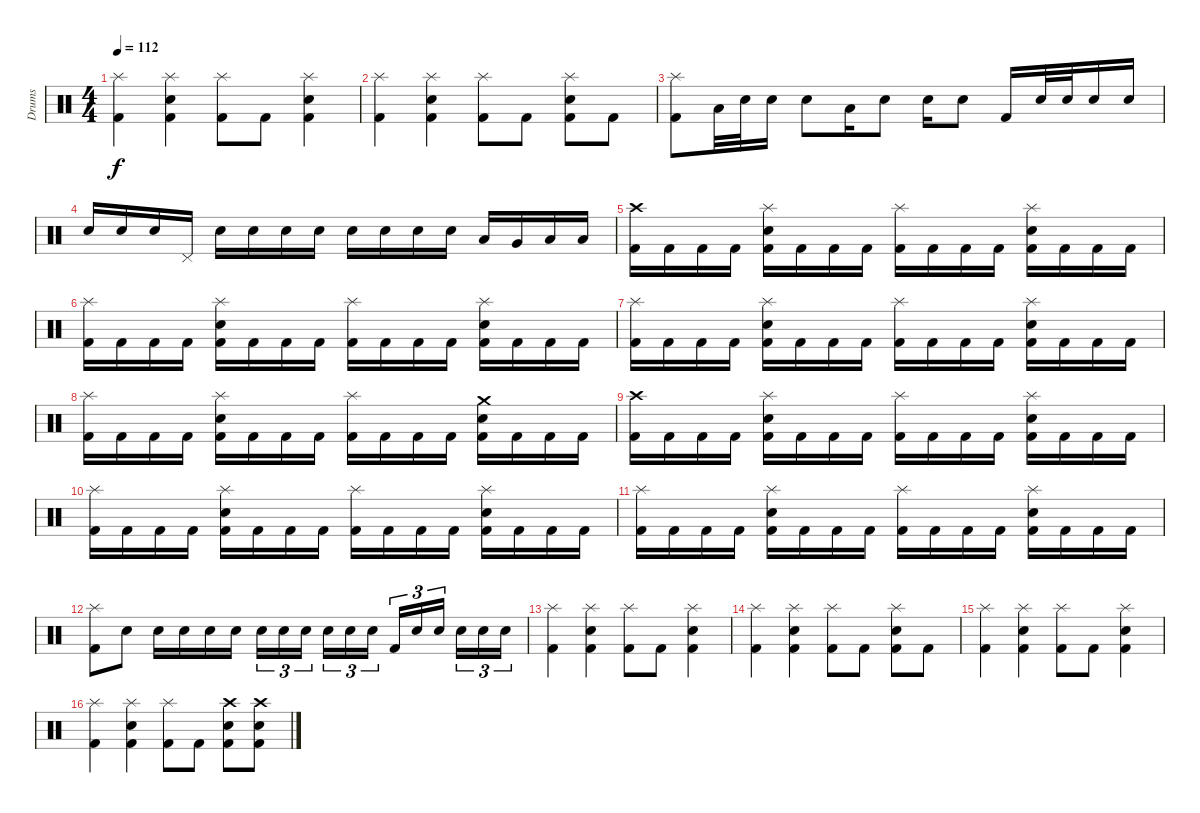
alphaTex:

\track ("Drums" "Drums") {instrument percussion}
\staff {score}
\articulation defaults
\ts (4 4)
\tempo 112
\clef neutral
\ks c
("Splash (hit)" "Kick (hit) 2").4{dy f} ("Splash (hit)" "Electric Snare (hit)" "Kick (hit) 2").4 ("Splash (hit)" "Kick (hit) 2").8 "Kick (hit) 2".8 ("Splash (hit)" "Electric Snare (hit)" "Kick (hit) 2").4 |
("Splash (hit)" "Kick (hit) 2").4 ("Splash (hit)" "Electric Snare (hit)" "Kick (hit) 2").4 ("Splash (hit)" "Kick (hit) 2").8 "Kick (hit) 2".8 ("Splash (hit)" "Electric Snare (hit)" "Kick (hit) 2").8 "Kick (hit) 2".8 |
("Splash (hit)" "Kick (hit) 2").8 "Low Floor Tom (hit)".32 "Electric Snare (hit)".32 "Electric Snare (hit)".16 "Electric Snare (hit)".8 "Low Floor Tom (hit)".16 "Electric Snare (hit)".8 "Electric Snare (hit)".16 "Electric Snare (hit)".8 "Kick (hit) 2".16 "Electric Snare (hit)".32 "Electric Snare (hit)".32 "Electric Snare (hit)".16 "Electric Snare (hit)".16 |
"Electric Snare (hit)".16 "Electric Snare (hit)".16 "Electric Snare (hit)".16 "Pedal Hi-Hat (hit)".16 "Electric Snare (hit)".16 "Electric Snare (hit)".16 "Electric Snare (hit)".16 "Electric Snare (hit)".16 "Electric Snare (hit)".16 "Electric Snare (hit)".16 "Electric Snare (hit)".16 "Electric Snare (hit)".16 "Low Tom (hit)".16 "Very Low Tom (hit)".16 "Low Floor Tom (hit)".16 "Low Floor Tom (hit)".16 |
("Crash high (hit)" "Kick (hit) 2").16 "Kick (hit) 2".16 "Kick (hit) 2".16 "Kick (hit) 2".16 ("Splash (hit)" "Electric Snare (hit)" "Kick (hit) 2").16 "Kick (hit) 2".16 "Kick (hit) 2".16 "Kick (hit) 2".16 ("Splash (hit)" "Kick (hit) 2").16 "Kick (hit) 2".16 "Kick (hit) 2".16 "Kick (hit) 2".16 ("Splash (hit)" "Electric Snare (hit)" "Kick (hit) 2").16 "Kick (hit) 2".16 "Kick (hit) 2".16 "Kick (hit) 2".16 |
("Splash (hit)" "Kick (hit) 2").16 "Kick (hit) 2".16 "Kick (hit) 2".16 "Kick (hit) 2".16 ("Splash (hit)" "Electric Snare (hit)" "Kick (hit) 2").16 "Kick (hit) 2".16 "Kick (hit) 2".16 "Kick (hit) 2".16 ("Splash (hit)" "Kick (hit) 2").16 "Kick (hit) 2".16 "Kick (hit) 2".16 "Kick (hit) 2".16 ("Splash (hit)" "Electric Snare (hit)" "Kick (hit) 2").16 "Kick (hit) 2".16 "Kick (hit) 2".16 "Kick (hit) 2".16 |
("Splash (hit)" "Kick (hit) 2").16 "Kick (hit) 2".16 "Kick (hit) 2".16 "Kick (hit) 2".16 ("Splash (hit)" "Electric Snare (hit)" "Kick (hit) 2").16 "Kick (hit) 2".16 "Kick (hit) 2".16 "Kick (hit) 2".16 ("Splash (hit)" "Kick (hit) 2").16 "Kick (hit) 2".16 "Kick (hit) 2".16 "Kick (hit) 2".16 ("Splash (hit)" "Electric Snare (hit)" "Kick (hit) 2").16 "Kick (hit) 2".16 "Kick (hit) 2".16 "Kick (hit) 2".16 |
("Splash (hit)" "Kick (hit) 2").16 "Kick (hit) 2".16 "Kick (hit) 2".16 "Kick (hit) 2".16 ("Splash (hit)" "Electric Snare (hit)" "Kick (hit) 2").16 "Kick (hit) 2".16 "Kick (hit) 2".16 "Kick (hit) 2".16 ("Splash (hit)" "Kick (hit) 2").16 "Kick (hit) 2".16 "Kick (hit) 2".16 "Kick (hit) 2".16 ("Crash medium (hit)" "Electric Snare (hit)" "Kick (hit) 2").16 "Kick (hit) 2".16 "Kick (hit) 2".16 "Kick (hit) 2".16 |
("Crash high (hit)" "Kick (hit) 2").16 "Kick (hit) 2".16 "Kick (hit) 2".16 "Kick (hit) 2".16 ("Splash (hit)" "Electric Snare (hit)" "Kick (hit) 2").16 "Kick (hit) 2".16 "Kick (hit) 2".16 "Kick (hit) 2".16 ("Splash (hit)" "Kick (hit) 2").16 "Kick (hit) 2".16 "Kick (hit) 2".16 "Kick (hit) 2".16 ("Splash (hit)" "Electric Snare (hit)" "Kick (hit) 2").16 "Kick (hit) 2".16 "Kick (hit) 2".16 "Kick (hit) 2".16 |
("Splash (hit)" "Kick (hit) 2").16 "Kick (hit) 2".16 "Kick (hit) 2".16 "Kick (hit) 2".16 ("Splash (hit)" "Electric Snare (hit)" "Kick (hit) 2").16 "Kick (hit) 2".16 "Kick (hit) 2".16 "Kick (hit) 2".16 ("Splash (hit)" "Kick (hit) 2").16 "Kick (hit) 2".16 "Kick (hit) 2".16 "Kick (hit) 2".16 ("Splash (hit)" "Electric Snare (hit)" "Kick (hit) 2").16 "Kick (hit) 2".16 "Kick (hit) 2".16 "Kick (hit) 2".16 |
("Splash (hit)" "Kick (hit) 2").16 "Kick (hit) 2".16 "Kick (hit) 2".16 "Kick (hit) 2".16 ("Splash (hit)" "Electric Snare (hit)" "Kick (hit) 2").16 "Kick (hit) 2".16 "Kick (hit) 2".16 "Kick (hit) 2".16 ("Splash (hit)" "Kick (hit) 2").16 "Kick (hit) 2".16 "Kick (hit) 2".16 "Kick (hit) 2".16 ("Splash (hit)" "Electric Snare (hit)" "Kick (hit) 2").16 "Kick (hit) 2".16 "Kick (hit) 2".16 "Kick (hit) 2".16 |
("Splash (hit)" "Kick (hit) 2").8 "Electric Snare (hit)".8 "Electric Snare (hit)".16 "Electric Snare (hit)".16 "Electric Snare (hit)".16 "Electric Snare (hit)".16 "Electric Snare (hit)".16{tu (3 2)} "Electric Snare (hit)".16{tu (3 2)} "Electric Snare (hit)".16{tu (3 2) beam splitsecondary} "Electric Snare (hit)".16{tu (3 2)} "Electric Snare (hit)".16{tu (3 2)} "Electric Snare (hit)".16{tu (3 2)} "Kick (hit) 2".16{tu (3 2)} "Electric Snare (hit)".16{tu (3 2)} "Electric Snare (hit)".16{tu (3 2) beam splitsecondary} "Electric Snare (hit)".16{tu (3 2)} "Electric Snare (hit)".16{tu (3 2)} "Electric Snare (hit)".16{tu (3 2)} |
("Splash (hit)" "Kick (hit) 2").4 ("Splash (hit)" "Electric Snare (hit)" "Kick (hit) 2").4 ("Splash (hit)" "Kick (hit) 2").8 "Kick (hit) 2".8 ("Splash (hit)" "Electric Snare (hit)" "Kick (hit) 2").4 |
("Splash (hit)" "Kick (hit) 2").4 ("Splash (hit)" "Electric Snare (hit)" "Kick (hit) 2").4 ("Splash (hit)" "Kick (hit) 2").8 "Kick (hit) 2".8 ("Splash (hit)" "Electric Snare (hit)" "Kick (hit) 2").8 "Kick (hit) 2".8 |
("Splash (hit)" "Kick (hit) 2").4 ("Splash (hit)" "Electric Snare (hit)" "Kick (hit) 2").4 ("Splash (hit)" "Kick (hit) 2").8 "Kick (hit) 2".8 ("Splash (hit)" "Electric Snare (hit)" "Kick (hit) 2").4 |
("Splash (hit)" "Kick (hit) 2").4 ("Splash (hit)" "Electric Snare (hit)" "Kick (hit) 2").4 ("Splash (hit)" "Kick (hit) 2").8 "Kick (hit) 2".8 ("Crash high (hit)" "Electric Snare (hit)" "Kick (hit) 2").8 ("Crash high (hit)" "Electric Snare (hit)" "Kick (hit) 2").8
